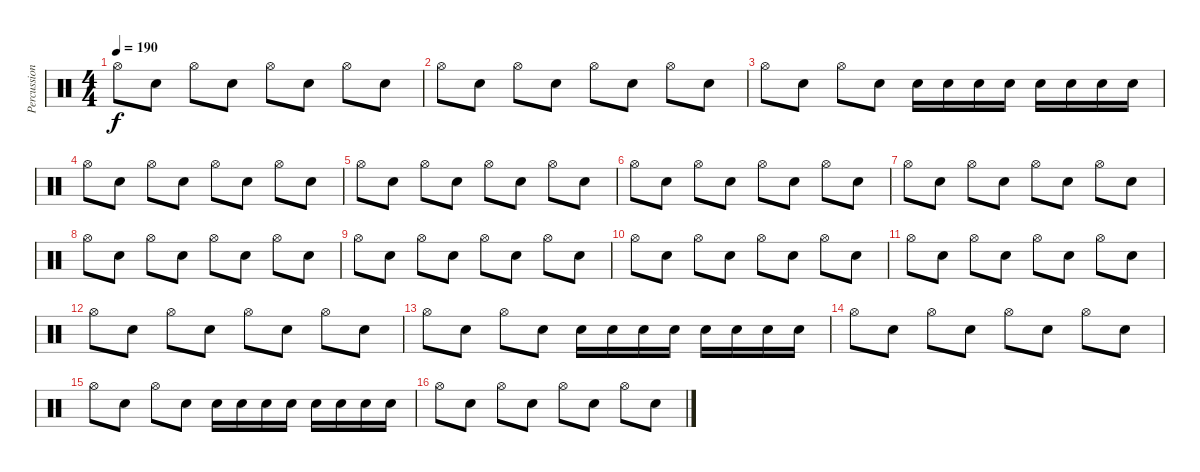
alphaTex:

\track ("Percussions" "Percussion") {instrument percussion}
\staff {score}
\articulation defaults
\ts (4 4)
\tempo 190
\clef neutral
\ks c "Hi-Hat (open)".8{dy f} "Snare (hit) 2".8 "Hi-Hat (open)".8 "Snare (hit) 2".8 "Hi-Hat (open)".8 "Snare (hit) 2".8 "Hi-Hat (open)".8 "Snare (hit) 2".8
|
"Hi-Hat (open)".8 "Snare (hit) 2".8 "Hi-Hat (open)".8 "Snare (hit) 2".8 "Hi-Hat (open)".8 "Snare (hit) 2".8 "Hi-Hat (open)".8 "Snare (hit) 2".8 |
"Hi-Hat (open)".8 "Snare (hit) 2".8 "Hi-Hat (open)".8 "Snare (hit) 2".8 "Electric Snare (hit)".16 "Electric Snare (hit)".16 "Electric Snare (hit)".16 "Electric Snare (hit)".16 "Electric Snare (hit)".16 "Electric Snare (hit)".16 "Electric Snare (hit)".16 "Electric Snare (hit)".16 |
"Hi-Hat (open)".8 "Snare (hit) 2".8 "Hi-Hat (open)".8 "Snare (hit) 2".8 "Hi-Hat (open)".8 "Snare (hit) 2".8 "Hi-Hat (open)".8 "Snare (hit) 2".8 |
"Hi-Hat (open)".8 "Snare (hit) 2".8 "Hi-Hat (open)".8 "Snare (hit) 2".8 "Hi-Hat (open)".8 "Snare (hit) 2".8 "Hi-Hat (open)".8 "Snare (hit) 2".8 |
"Hi-Hat (open)".8 "Snare (hit) 2".8 "Hi-Hat (open)".8 "Snare (hit) 2".8 "Hi-Hat (open)".8 "Snare (hit) 2".8 "Hi-Hat (open)".8 "Snare (hit) 2".8 |
"Hi-Hat (open)".8 "Snare (hit) 2".8 "Hi-Hat (open)".8 "Snare (hit) 2".8 "Hi-Hat (open)".8 "Snare (hit) 2".8 "Hi-Hat (open)".8 "Snare (hit) 2".8 |
"Hi-Hat (open)".8 "Snare (hit) 2".8 "Hi-Hat (open)".8 "Snare (hit) 2".8 "Hi-Hat (open)".8 "Snare (hit) 2".8 "Hi-Hat (open)".8 "Snare (hit) 2".8 |
"Hi-Hat (open)".8 "Snare (hit) 2".8 "Hi-Hat (open)".8 "Snare (hit) 2".8 "Hi-Hat (open)".8 "Snare (hit) 2".8 "Hi-Hat (open)".8 "Snare (hit) 2".8 |
"Hi-Hat (open)".8 "Snare (hit) 2".8 "Hi-Hat (open)".8 "Snare (hit) 2".8 "Hi-Hat (open)".8 "Snare (hit) 2".8 "Hi-Hat (open)".8 "Snare (hit) 2".8 |
"Hi-Hat (open)".8 "Snare (hit) 2".8 "Hi-Hat (open)".8 "Snare (hit) 2".8 "Hi-Hat (open)".8 "Snare (hit) 2".8 "Hi-Hat (open)".8 "Snare (hit) 2".8 |
"Hi-Hat (open)".8 "Snare (hit) 2".8 "Hi-Hat (open)".8 "Snare (hit) 2".8 "Hi-Hat (open)".8 "Snare (hit) 2".8 "Hi-Hat (open)".8 "Snare (hit) 2".8 |
"Hi-Hat (open)".8 "Snare (hit) 2".8 "Hi-Hat (open)".8 "Snare (hit) 2".8 "Electric Snare (hit)".16 "Electric Snare (hit)".16 "Electric Snare (hit)".16 "Electric Snare (hit)".16 "Electric Snare (hit)".16 "Electric Snare (hit)".16 "Electric Snare (hit)".16 "Electric Snare (hit)".16 |
"Hi-Hat (open)".8 "Snare (hit) 2".8 "Hi-Hat (open)".8 "Snare (hit) 2".8 "Hi-Hat (open)".8 "Snare (hit) 2".8 "Hi-Hat (open)".8 "Snare (hit) 2".8 |
"Hi-Hat (open)".8 "Snare (hit) 2".8 "Hi-Hat (open)".8 "Snare (hit) 2".8 "Electric Snare (hit)".16 "Electric Snare (hit)".16 "Electric Snare (hit)".16 "Electric Snare (hit)".16 "Electric Snare (hit)".16 "Electric Snare (hit)".16 "Electric Snare (hit)".16 "Electric Snare (hit)".16 |
"Hi-Hat (open)".8 "Snare (hit) 2".8 "Hi-Hat (open)".8 "Snare (hit) 2".8 "Hi-Hat (open)".8 "Snare (hit) 2".8 "Hi-Hat (open)".8 "Snare (hit) 2".8
